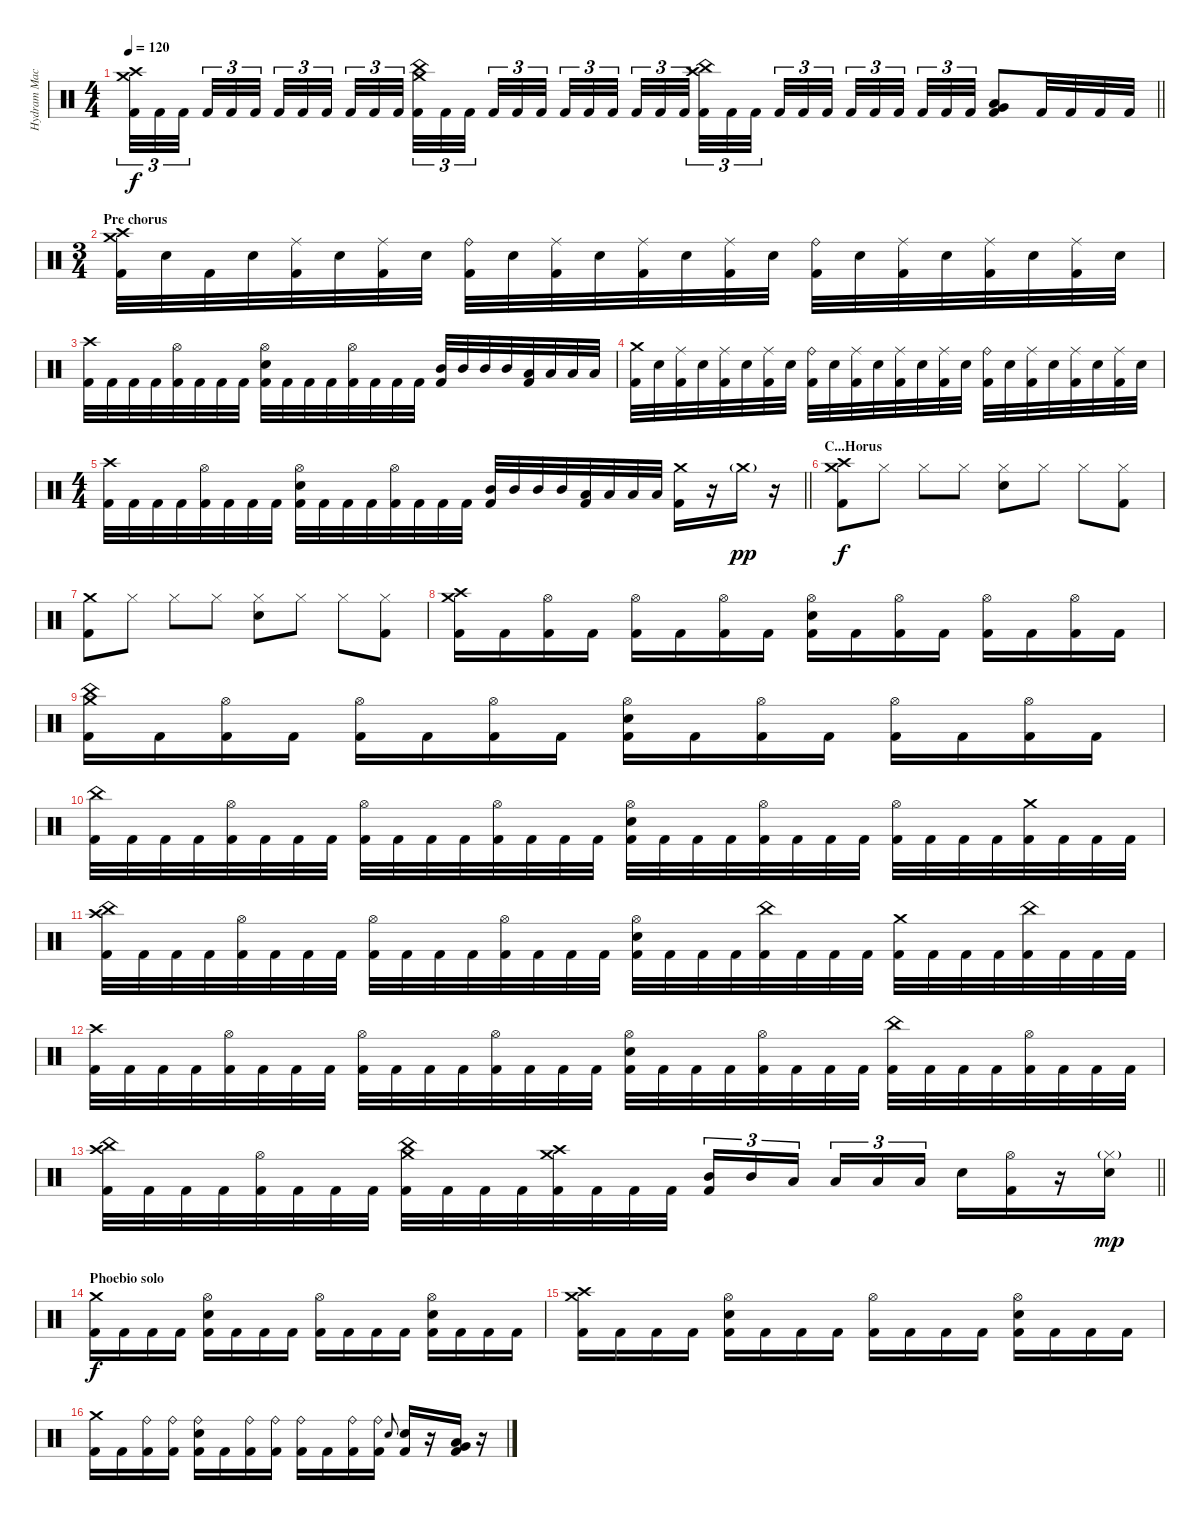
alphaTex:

\track ("Hydram Machine" "Hydram Mac") {instrument percussion}
\staff {score}
\articulation defaults
\ts (4 4)
\tempo 120
\clef neutral
\barLineRight lightlight
\ks c
("Crash high (hit)" "Crash medium (hit)" "Kick (hit) 2").32{tu (3 2) dy f} "Kick (hit) 2".32{tu (3 2)} "Kick (hit) 2".32{tu (3 2) beam splitsecondary} "Kick (hit) 2".32{tu (3 2)} "Kick (hit) 2".32{tu (3 2)} "Kick (hit) 2".32{tu (3 2) beam splitsecondary} "Kick (hit) 2".32{tu (3 2)} "Kick (hit) 2".32{tu (3 2)} "Kick (hit) 2".32{tu (3 2) beam splitsecondary} "Kick (hit) 2".32{tu (3 2)} "Kick (hit) 2".32{tu (3 2)} "Kick (hit) 2".32{tu (3 2)} ("Crash medium (hit)" "China (hit)" "Kick (hit) 2").32{tu (3 2)} "Kick (hit) 2".32{tu (3 2)} "Kick (hit) 2".32{tu (3 2) beam splitsecondary} "Kick (hit) 2".32{tu (3 2)} "Kick (hit) 2".32{tu (3 2)} "Kick (hit) 2".32{tu (3 2) beam splitsecondary} "Kick (hit) 2".32{tu (3 2)} "Kick (hit) 2".32{tu (3 2)} "Kick (hit) 2".32{tu (3 2) beam splitsecondary} "Kick (hit) 2".32{tu (3 2)} "Kick (hit) 2".32{tu (3 2)} "Kick (hit) 2".32{tu (3 2)} ("Crash high (hit)" "China (hit)" "Kick (hit) 2").32{tu (3 2)} "Kick (hit) 2".32{tu (3 2)} "Kick (hit) 2".32{tu (3 2) beam splitsecondary} "Kick (hit) 2".32{tu (3 2)} "Kick (hit) 2".32{tu (3 2)} "Kick (hit) 2".32{tu (3 2) beam splitsecondary} "Kick (hit) 2".32{tu (3 2)} "Kick (hit) 2".32{tu (3 2)} "Kick (hit) 2".32{tu (3 2) beam splitsecondary} "Kick (hit) 2".32{tu (3 2)} "Kick (hit) 2".32{tu (3 2)} "Kick (hit) 2".32{tu (3 2)} ("Very Low Tom (hit)" "Low Floor Tom (hit)" "Kick (hit) 2").8 "Kick (hit) 2".32 "Kick (hit) 2".32 "Kick (hit) 2".32 "Kick (hit) 2".32 |
\ts (3 4)
\section ("" "Pre chorus")
("Crash high (hit)" "Crash medium (hit)" "Kick (hit) 2").32 "Electric Snare (hit)".32 "Kick (hit) 2".32 "Electric Snare (hit)".32 ("Ride (middle)" "Kick (hit) 2").32 "Electric Snare (hit)".32 ("Ride (middle)" "Kick (hit) 2").32 "Electric Snare (hit)".32 ("Ride (bell)" "Kick (hit) 2").32 "Electric Snare (hit)".32 ("Ride (middle)" "Kick (hit) 2").32 "Electric Snare (hit)".32 ("Ride (middle)" "Kick (hit) 2").32 "Electric Snare (hit)".32 ("Ride (middle)" "Kick (hit) 2").32 "Electric Snare (hit)".32 ("Ride (bell)" "Kick (hit) 2").32 "Electric Snare (hit)".32 ("Ride (middle)" "Kick (hit) 2").32 "Electric Snare (hit)".32 ("Ride (middle)" "Kick (hit) 2").32 "Electric Snare (hit)".32 ("Ride (middle)" "Kick (hit) 2").32 "Electric Snare (hit)".32 |
("Crash high (hit)" "Kick (hit) 2").32 "Kick (hit) 2".32 "Kick (hit) 2".32 "Kick (hit) 2".32 ("Hi-Hat (open)" "Kick (hit) 2").32 "Kick (hit) 2".32 "Kick (hit) 2".32 "Kick (hit) 2".32 ("Hi-Hat (open)" "Electric Snare (hit)" "Kick (hit) 2").32 "Kick (hit) 2".32 "Kick (hit) 2".32 "Kick (hit) 2".32 ("Hi-Hat (open)" "Kick (hit) 2").32 "Kick (hit) 2".32 "Kick (hit) 2".32 "Kick (hit) 2".32 ("Mid Tom (hit)" "Kick (hit) 2").32 "Mid Tom (hit)".32 "Mid Tom (hit)".32 "Mid Tom (hit)".32 ("Low Tom (hit)" "Kick (hit) 2").32 "Low Tom (hit)".32 "Low Tom (hit)".32 "Low Tom (hit)".32 |
("Crash medium (hit)" "Kick (hit) 2").32 "Electric Snare (hit)".32 ("Ride (middle)" "Kick (hit) 2").32 "Electric Snare (hit)".32 ("Ride (middle)" "Kick (hit) 2").32 "Electric Snare (hit)".32 ("Ride (middle)" "Kick (hit) 2").32 "Electric Snare (hit)".32 ("Ride (bell)" "Kick (hit) 2").32 "Electric Snare (hit)".32 ("Ride (middle)" "Kick (hit) 2").32 "Electric Snare (hit)".32 ("Ride (middle)" "Kick (hit) 2").32 "Electric Snare (hit)".32 ("Ride (middle)" "Kick (hit) 2").32 "Electric Snare (hit)".32 ("Ride (bell)" "Kick (hit) 2").32 "Electric Snare (hit)".32 ("Ride (middle)" "Kick (hit) 2").32 "Electric Snare (hit)".32 ("Ride (middle)" "Kick (hit) 2").32 "Electric Snare (hit)".32 ("Ride (middle)" "Kick (hit) 2").32 "Electric Snare (hit)".32 |
\ts (4 4)
\barLineRight lightlight
("Crash high (hit)" "Kick (hit) 2").32 "Kick (hit) 2".32 "Kick (hit) 2".32 "Kick (hit) 2".32 ("Hi-Hat (open)" "Kick (hit) 2").32 "Kick (hit) 2".32 "Kick (hit) 2".32 "Kick (hit) 2".32 ("Hi-Hat (open)" "Electric Snare (hit)" "Kick (hit) 2").32 "Kick (hit) 2".32 "Kick (hit) 2".32 "Kick (hit) 2".32 ("Hi-Hat (open)" "Kick (hit) 2").32 "Kick (hit) 2".32 "Kick (hit) 2".32 "Kick (hit) 2".32 ("Mid Tom (hit)" "Kick (hit) 2").32 "Mid Tom (hit)".32 "Mid Tom (hit)".32 "Mid Tom (hit)".32 ("Low Tom (hit)" "Kick (hit) 2").32 "Low Tom (hit)".32 "Low Tom (hit)".32 "Low Tom (hit)".32 ("Crash medium (hit)" "Kick (hit) 2").16 r.16 "Crash medium (hit)"{g}.16{dy pp} r.16 |
\section ("" "C...Horus")
("Crash medium (hit)" "Crash high (hit)" "Kick (hit) 2").8{dy f} "Hi-Hat (closed)".8 "Hi-Hat (closed)".8 "Hi-Hat (closed)".8 ("Hi-Hat (closed)" "Electric Snare (hit)").8 "Hi-Hat (closed)".8 "Hi-Hat (closed)".8 ("Hi-Hat (closed)" "Kick (hit) 2").8 |
("Crash medium (hit)" "Kick (hit) 2").8 "Hi-Hat (closed)".8 "Hi-Hat (closed)".8 "Hi-Hat (closed)".8 ("Hi-Hat (closed)" "Electric Snare (hit)").8 "Hi-Hat (closed)".8 "Hi-Hat (closed)".8 ("Hi-Hat (closed)" "Kick (hit) 2").8 |
("Crash medium (hit)" "Crash high (hit)" "Kick (hit) 2").16 "Kick (hit) 2".16 ("Hi-Hat (open)" "Kick (hit) 2").16 "Kick (hit) 2".16 ("Hi-Hat (open)" "Kick (hit) 2").16 "Kick (hit) 2".16 ("Hi-Hat (open)" "Kick (hit) 2").16 "Kick (hit) 2".16 ("Hi-Hat (open)" "Electric Snare (hit)" "Kick (hit) 2").16 "Kick (hit) 2".16 ("Hi-Hat (open)" "Kick (hit) 2").16 "Kick (hit) 2".16 ("Hi-Hat (open)" "Kick (hit) 2").16 "Kick (hit) 2".16 ("Hi-Hat (open)" "Kick (hit) 2").16 "Kick (hit) 2".16 |
("Crash medium (hit)" "China (hit)" "Kick (hit) 2").16 "Kick (hit) 2".16 ("Hi-Hat (open)" "Kick (hit) 2").16 "Kick (hit) 2".16 ("Hi-Hat (open)" "Kick (hit) 2").16 "Kick (hit) 2".16 ("Hi-Hat (open)" "Kick (hit) 2").16 "Kick (hit) 2".16 ("Hi-Hat (open)" "Electric Snare (hit)" "Kick (hit) 2").16 "Kick (hit) 2".16 ("Hi-Hat (open)" "Kick (hit) 2").16 "Kick (hit) 2".16 ("Hi-Hat (open)" "Kick (hit) 2").16 "Kick (hit) 2".16 ("Hi-Hat (open)" "Kick (hit) 2").16 "Kick (hit) 2".16 |
("China (hit)" "Kick (hit) 2").32 "Kick (hit) 2".32 "Kick (hit) 2".32 "Kick (hit) 2".32 ("Hi-Hat (open)" "Kick (hit) 2").32 "Kick (hit) 2".32 "Kick (hit) 2".32 "Kick (hit) 2".32 ("Hi-Hat (open)" "Kick (hit) 2").32 "Kick (hit) 2".32 "Kick (hit) 2".32 "Kick (hit) 2".32 ("Hi-Hat (open)" "Kick (hit) 2").32 "Kick (hit) 2".32 "Kick (hit) 2".32 "Kick (hit) 2".32 ("Hi-Hat (open)" "Electric Snare (hit)" "Kick (hit) 2").32 "Kick (hit) 2".32 "Kick (hit) 2".32 "Kick (hit) 2".32 ("Hi-Hat (open)" "Kick (hit) 2").32 "Kick (hit) 2".32 "Kick (hit) 2".32 "Kick (hit) 2".32 ("Hi-Hat (open)" "Kick (hit) 2").32 "Kick (hit) 2".32 "Kick (hit) 2".32 "Kick (hit) 2".32 ("Crash medium (hit)" "Kick (hit) 2").32 "Kick (hit) 2".32 "Kick (hit) 2".32 "Kick (hit) 2".32 |
("China (hit)" "Crash high (hit)" "Kick (hit) 2").32 "Kick (hit) 2".32 "Kick (hit) 2".32 "Kick (hit) 2".32 ("Hi-Hat (open)" "Kick (hit) 2").32 "Kick (hit) 2".32 "Kick (hit) 2".32 "Kick (hit) 2".32 ("Hi-Hat (open)" "Kick (hit) 2").32 "Kick (hit) 2".32 "Kick (hit) 2".32 "Kick (hit) 2".32 ("Hi-Hat (open)" "Kick (hit) 2").32 "Kick (hit) 2".32 "Kick (hit) 2".32 "Kick (hit) 2".32 ("Hi-Hat (open)" "Electric Snare (hit)" "Kick (hit) 2").32 "Kick (hit) 2".32 "Kick (hit) 2".32 "Kick (hit) 2".32 ("China (hit)" "Kick (hit) 2").32 "Kick (hit) 2".32 "Kick (hit) 2".32 "Kick (hit) 2".32 ("Crash medium (hit)" "Kick (hit) 2").32 "Kick (hit) 2".32 "Kick (hit) 2".32 "Kick (hit) 2".32 ("China (hit)" "Kick (hit) 2").32 "Kick (hit) 2".32 "Kick (hit) 2".32 "Kick (hit) 2".32 |
("Crash high (hit)" "Kick (hit) 2").32 "Kick (hit) 2".32 "Kick (hit) 2".32 "Kick (hit) 2".32 ("Hi-Hat (open)" "Kick (hit) 2").32 "Kick (hit) 2".32 "Kick (hit) 2".32 "Kick (hit) 2".32 ("Hi-Hat (open)" "Kick (hit) 2").32 "Kick (hit) 2".32 "Kick (hit) 2".32 "Kick (hit) 2".32 ("Hi-Hat (open)" "Kick (hit) 2").32 "Kick (hit) 2".32 "Kick (hit) 2".32 "Kick (hit) 2".32 ("Hi-Hat (open)" "Electric Snare (hit)" "Kick (hit) 2").32 "Kick (hit) 2".32 "Kick (hit) 2".32 "Kick (hit) 2".32 ("Hi-Hat (open)" "Kick (hit) 2").32 "Kick (hit) 2".32 "Kick (hit) 2".32 "Kick (hit) 2".32 ("China (hit)" "Kick (hit) 2").32 "Kick (hit) 2".32 "Kick (hit) 2".32 "Kick (hit) 2".32 ("Hi-Hat (open)" "Kick (hit) 2").32 "Kick (hit) 2".32 "Kick (hit) 2".32 "Kick (hit) 2".32 |
\barLineRight lightlight
("Crash high (hit)" "China (hit)" "Kick (hit) 2").32 "Kick (hit) 2".32 "Kick (hit) 2".32 "Kick (hit) 2".32 ("Hi-Hat (open)" "Kick (hit) 2").32 "Kick (hit) 2".32 "Kick (hit) 2".32 "Kick (hit) 2".32 ("China (hit)" "Crash medium (hit)" "Kick (hit) 2").32 "Kick (hit) 2".32 "Kick (hit) 2".32 "Kick (hit) 2".32 ("Crash medium (hit)" "Crash high (hit)" "Kick (hit) 2").32 "Kick (hit) 2".32 "Kick (hit) 2".32 "Kick (hit) 2".32 ("Mid Tom (hit)" "Kick (hit) 2").16{tu (3 2)} "Mid Tom (hit)".16{tu (3 2)} "Low Tom (hit)".16{tu (3 2) beam splitsecondary} "Low Tom (hit)".16{tu (3 2)} "Low Tom (hit)".16{tu (3 2)} "Low Tom (hit)".16{tu (3 2)} "Electric Snare (hit)".16 ("Hi-Hat (open)" "Kick (hit) 2").16 r.16 ("Hi-Hat (closed)"{g} "Electric Snare (hit)").16{dy mp} |
\section ("" "Phoebio solo")
("Crash medium (hit)" "Kick (hit) 2").16{dy f} "Kick (hit) 2".16 "Kick (hit) 2".16 "Kick (hit) 2".16 ("Hi-Hat (open)" "Electric Snare (hit)" "Kick (hit) 2").16 "Kick (hit) 2".16 "Kick (hit) 2".16 "Kick (hit) 2".16 ("Hi-Hat (open)" "Kick (hit) 2").16 "Kick (hit) 2".16 "Kick (hit) 2".16 "Kick (hit) 2".16 ("Hi-Hat (open)" "Electric Snare (hit)" "Kick (hit) 2").16 "Kick (hit) 2".16 "Kick (hit) 2".16 "Kick (hit) 2".16 |
("Crash medium (hit)" "Crash high (hit)" "Kick (hit) 2").16 "Kick (hit) 2".16 "Kick (hit) 2".16 "Kick (hit) 2".16 ("Hi-Hat (open)" "Electric Snare (hit)" "Kick (hit) 2").16 "Kick (hit) 2".16 "Kick (hit) 2".16 "Kick (hit) 2".16 ("Hi-Hat (open)" "Kick (hit) 2").16 "Kick (hit) 2".16 "Kick (hit) 2".16 "Kick (hit) 2".16 ("Hi-Hat (open)" "Electric Snare (hit)" "Kick (hit) 2").16 "Kick (hit) 2".16 "Kick (hit) 2".16 "Kick (hit) 2".16 |
("Crash medium (hit)" "Kick (hit) 2").16 "Kick (hit) 2".16 ("Ride (bell)" "Kick (hit) 2").16 ("Ride (bell)" "Kick (hit) 2").16 ("Ride (bell)" "Electric Snare (hit)" "Kick (hit) 2").16 "Kick (hit) 2".16 ("Ride (bell)" "Kick (hit) 2").16 ("Ride (bell)" "Kick (hit) 2").16 ("Ride (bell)" "Kick (hit) 2").16 "Kick (hit) 2".16 ("Ride (bell)" "Kick (hit) 2").16 ("Ride (bell)" "Kick (hit) 2").16 "Electric Snare (hit)".8{gr onbeat} ("Electric Snare (hit)" "Kick (hit) 2").16 r.16 ("Low Floor Tom (hit)" "Very Low Tom (hit)" "Kick (hit) 2").16 r.16
